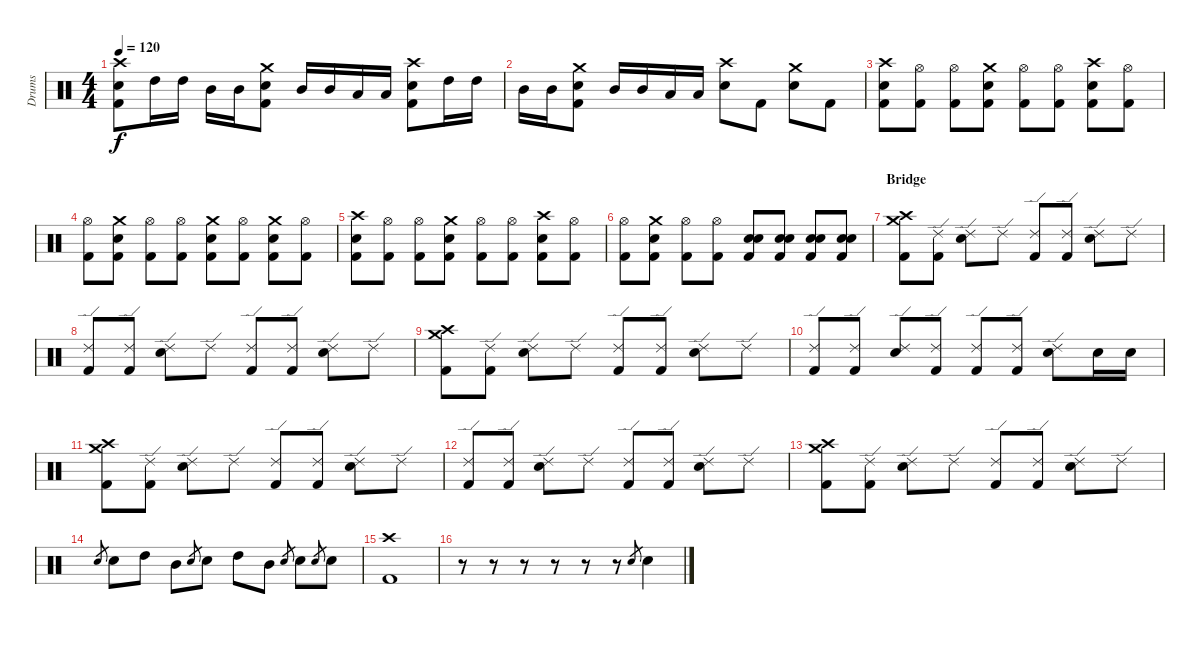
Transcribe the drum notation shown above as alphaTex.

\track ("Drums" "Drums") {instrument percussion}
\staff {score}
\articulation defaults
\ts (4 4)
\tempo 120
\clef neutral
\ks c
("Crash high (hit)" "Electric Snare (hit)" "Kick (hit) 2").8{dy f} "High Tom (hit)".16 "High Tom (hit)".16 "Mid Tom (hit)".16 "Mid Tom (hit)".16 ("Crash medium (hit)" "Electric Snare (hit)" "Kick (hit) 2").8 "Mid Tom (hit)".16 "Mid Tom (hit)".16 "Low Tom (hit)".16 "Low Tom (hit)".16 ("Crash high (hit)" "Kick (hit) 2" "Electric Snare (hit)").8 "High Tom (hit)".16 "High Tom (hit)".16 |
"Mid Tom (hit)".16 "Mid Tom (hit)".16 ("Crash medium (hit)" "Electric Snare (hit)" "Kick (hit) 2").8 "Mid Tom (hit)".16 "Mid Tom (hit)".16 "Low Tom (hit)".16 "Low Tom (hit)".16 ("Crash high (hit)" "Electric Snare (hit)").8 "Kick (hit) 2".8 ("Crash medium (hit)" "Electric Snare (hit)").8 "Kick (hit) 2".8 |
("Crash high (hit)" "Electric Snare (hit)" "Kick (hit) 2").8 ("Hi-Hat (open)" "Kick (hit) 2").8 ("Hi-Hat (open)" "Kick (hit) 2").8 ("Crash medium (hit)" "Electric Snare (hit)" "Kick (hit) 2").8 ("Hi-Hat (open)" "Kick (hit) 2").8 ("Hi-Hat (open)" "Kick (hit) 2").8 ("Crash high (hit)" "Electric Snare (hit)" "Kick (hit) 2").8 ("Hi-Hat (open)" "Kick (hit) 2").8 |
("Hi-Hat (open)" "Kick (hit) 2").8 ("Crash medium (hit)" "Electric Snare (hit)" "Kick (hit) 2").8 ("Hi-Hat (open)" "Kick (hit) 2").8 ("Hi-Hat (open)" "Kick (hit) 2").8 ("Crash medium (hit)" "Electric Snare (hit)" "Kick (hit) 2").8 ("Hi-Hat (open)" "Kick (hit) 2").8 ("Crash medium (hit)" "Electric Snare (hit)" "Kick (hit) 2").8 ("Hi-Hat (open)" "Kick (hit) 2").8 |
("Crash high (hit)" "Electric Snare (hit)" "Kick (hit) 2").8 ("Hi-Hat (open)" "Kick (hit) 2").8 ("Hi-Hat (open)" "Kick (hit) 2").8 ("Crash medium (hit)" "Electric Snare (hit)" "Kick (hit) 2").8 ("Hi-Hat (open)" "Kick (hit) 2").8 ("Hi-Hat (open)" "Kick (hit) 2").8 ("Crash high (hit)" "Electric Snare (hit)" "Kick (hit) 2").8 ("Hi-Hat (open)" "Kick (hit) 2").8 |
("Hi-Hat (open)" "Kick (hit) 2").8 ("Crash medium (hit)" "Electric Snare (hit)" "Kick (hit) 2").8 ("Hi-Hat (open)" "Kick (hit) 2").8 ("Hi-Hat (open)" "Kick (hit) 2").8 ("Electric Snare (hit)" "Electric Snare (hit)" "Kick (hit) 2").8 ("Electric Snare (hit)" "Electric Snare (hit)" "Kick (hit) 2").8 ("Electric Snare (hit)" "Electric Snare (hit)" "Kick (hit) 2").8 ("Electric Snare (hit)" "Electric Snare (hit)" "Kick (hit) 2").8 |
\section ("" "Bridge")
("Crash medium (hit)" "Crash high (hit)" "Kick (hit) 2").8 ("Ride (edge) 2" "Kick (hit) 2").8 ("Ride (edge) 2" "Electric Snare (hit)").8 "Ride (edge) 2".8 ("Ride (edge) 2" "Kick (hit) 2").8 ("Ride (edge) 2" "Kick (hit) 2").8 ("Ride (edge) 2" "Electric Snare (hit)").8 "Ride (edge) 2".8 |
("Ride (edge) 2" "Kick (hit) 2").8 ("Ride (edge) 2" "Kick (hit) 2").8 ("Ride (edge) 2" "Electric Snare (hit)").8 "Ride (edge) 2".8 ("Ride (edge) 2" "Kick (hit) 2").8 ("Ride (edge) 2" "Kick (hit) 2").8 ("Ride (edge) 2" "Electric Snare (hit)").8 "Ride (edge) 2".8 |
("Crash medium (hit)" "Crash high (hit)" "Kick (hit) 2").8 ("Ride (edge) 2" "Kick (hit) 2").8 ("Ride (edge) 2" "Electric Snare (hit)").8 "Ride (edge) 2".8 ("Ride (edge) 2" "Kick (hit) 2").8 ("Ride (edge) 2" "Kick (hit) 2").8 ("Ride (edge) 2" "Electric Snare (hit)").8 "Ride (edge) 2".8 |
("Ride (edge) 2" "Kick (hit) 2").8 ("Ride (edge) 2" "Kick (hit) 2").8 ("Ride (edge) 2" "Electric Snare (hit)").8 ("Ride (edge) 2" "Kick (hit) 2").8 ("Ride (edge) 2" "Kick (hit) 2").8 ("Ride (edge) 2" "Kick (hit) 2").8 ("Ride (edge) 2" "Electric Snare (hit)").8 "Electric Snare (hit)".16 "Electric Snare (hit)".16 |
("Crash medium (hit)" "Crash high (hit)" "Kick (hit) 2").8 ("Ride (edge) 2" "Kick (hit) 2").8 ("Ride (edge) 2" "Electric Snare (hit)").8 "Ride (edge) 2".8 ("Ride (edge) 2" "Kick (hit) 2").8 ("Ride (edge) 2" "Kick (hit) 2").8 ("Ride (edge) 2" "Electric Snare (hit)").8 "Ride (edge) 2".8 |
("Ride (edge) 2" "Kick (hit) 2").8 ("Ride (edge) 2" "Kick (hit) 2").8 ("Ride (edge) 2" "Electric Snare (hit)").8 "Ride (edge) 2".8 ("Ride (edge) 2" "Kick (hit) 2").8 ("Ride (edge) 2" "Kick (hit) 2").8 ("Ride (edge) 2" "Electric Snare (hit)").8 "Ride (edge) 2".8 |
("Crash medium (hit)" "Crash high (hit)" "Kick (hit) 2").8 ("Ride (edge) 2" "Kick (hit) 2").8 ("Ride (edge) 2" "Electric Snare (hit)").8 "Ride (edge) 2".8 ("Ride (edge) 2" "Kick (hit) 2").8 ("Ride (edge) 2" "Kick (hit) 2").8 ("Ride (edge) 2" "Electric Snare (hit)").8 "Ride (edge) 2".8 |
"Electric Snare (hit)".8{gr} "Electric Snare (hit)".8 "High Tom (hit)".8 "Mid Tom (hit)".8 "Electric Snare (hit)".8{gr} "Electric Snare (hit)".8 "High Tom (hit)".8 "Mid Tom (hit)".8 "Electric Snare (hit)".8{gr} "Electric Snare (hit)".8 "Electric Snare (hit)".8{gr} "Electric Snare (hit)".8 |
("Crash high (hit)" "Kick (hit) 2").1 |
r.8 r.8 r.8 r.8 r.8 r.8 "Electric Snare (hit)".8{gr} "Electric Snare (hit)".4
